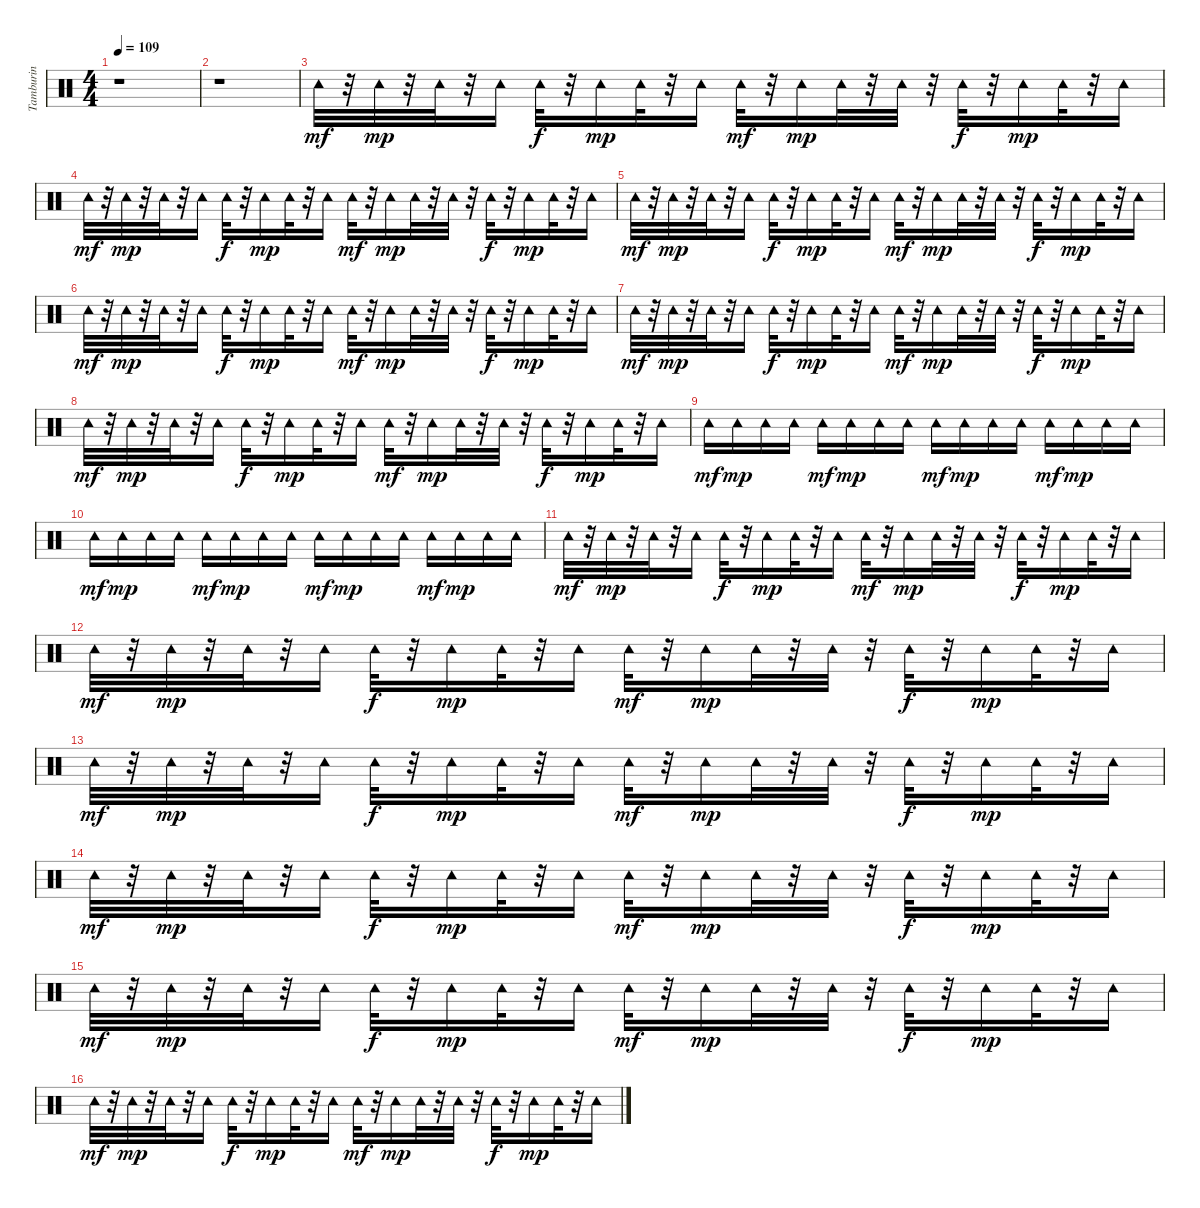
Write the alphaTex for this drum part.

\track ("Tamburin" "Tamburin") {instrument percussion}
\staff {score}
\articulation defaults
\ts (4 4)
\tempo 109
\clef neutral
\ks c
r.1{dy mf} |
r.1 |
"Tambourine (hit)".32 r.32 "Tambourine (hit)".32{dy mp} r.32 "Tambourine (hit)".32 r.32 "Tambourine (hit)".16 "Tambourine (hit)".32{dy f} r.32 "Tambourine (hit)".16{dy mp} "Tambourine (hit)".32 r.32 "Tambourine (hit)".16 "Tambourine (hit)".32{dy mf} r.32 "Tambourine (hit)".16{dy mp} "Tambourine (hit)".32 r.32 "Tambourine (hit)".32 r.32 "Tambourine (hit)".32{dy f} r.32 "Tambourine (hit)".16{dy mp} "Tambourine (hit)".32 r.32 "Tambourine (hit)".16 |
"Tambourine (hit)".32{dy mf} r.32 "Tambourine (hit)".32{dy mp} r.32 "Tambourine (hit)".32 r.32 "Tambourine (hit)".16 "Tambourine (hit)".32{dy f} r.32 "Tambourine (hit)".16{dy mp} "Tambourine (hit)".32 r.32 "Tambourine (hit)".16 "Tambourine (hit)".32{dy mf} r.32 "Tambourine (hit)".16{dy mp} "Tambourine (hit)".32 r.32 "Tambourine (hit)".32 r.32 "Tambourine (hit)".32{dy f} r.32 "Tambourine (hit)".16{dy mp} "Tambourine (hit)".32 r.32 "Tambourine (hit)".16 |
"Tambourine (hit)".32{dy mf} r.32 "Tambourine (hit)".32{dy mp} r.32 "Tambourine (hit)".32 r.32 "Tambourine (hit)".16 "Tambourine (hit)".32{dy f} r.32 "Tambourine (hit)".16{dy mp} "Tambourine (hit)".32 r.32 "Tambourine (hit)".16 "Tambourine (hit)".32{dy mf} r.32 "Tambourine (hit)".16{dy mp} "Tambourine (hit)".32 r.32 "Tambourine (hit)".32 r.32 "Tambourine (hit)".32{dy f} r.32 "Tambourine (hit)".16{dy mp} "Tambourine (hit)".32 r.32 "Tambourine (hit)".16 |
"Tambourine (hit)".32{dy mf} r.32 "Tambourine (hit)".32{dy mp} r.32 "Tambourine (hit)".32 r.32 "Tambourine (hit)".16 "Tambourine (hit)".32{dy f} r.32 "Tambourine (hit)".16{dy mp} "Tambourine (hit)".32 r.32 "Tambourine (hit)".16 "Tambourine (hit)".32{dy mf} r.32 "Tambourine (hit)".16{dy mp} "Tambourine (hit)".32 r.32 "Tambourine (hit)".32 r.32 "Tambourine (hit)".32{dy f} r.32 "Tambourine (hit)".16{dy mp} "Tambourine (hit)".32 r.32 "Tambourine (hit)".16 |
"Tambourine (hit)".32{dy mf} r.32 "Tambourine (hit)".32{dy mp} r.32 "Tambourine (hit)".32 r.32 "Tambourine (hit)".16 "Tambourine (hit)".32{dy f} r.32 "Tambourine (hit)".16{dy mp} "Tambourine (hit)".32 r.32 "Tambourine (hit)".16 "Tambourine (hit)".32{dy mf} r.32 "Tambourine (hit)".16{dy mp} "Tambourine (hit)".32 r.32 "Tambourine (hit)".32 r.32 "Tambourine (hit)".32{dy f} r.32 "Tambourine (hit)".16{dy mp} "Tambourine (hit)".32 r.32 "Tambourine (hit)".16 |
"Tambourine (hit)".32{dy mf} r.32 "Tambourine (hit)".32{dy mp} r.32 "Tambourine (hit)".32 r.32 "Tambourine (hit)".16 "Tambourine (hit)".32{dy f} r.32 "Tambourine (hit)".16{dy mp} "Tambourine (hit)".32 r.32 "Tambourine (hit)".16 "Tambourine (hit)".32{dy mf} r.32 "Tambourine (hit)".16{dy mp} "Tambourine (hit)".32 r.32 "Tambourine (hit)".32 r.32 "Tambourine (hit)".32{dy f} r.32 "Tambourine (hit)".16{dy mp} "Tambourine (hit)".32 r.32 "Tambourine (hit)".16 |
"Tambourine (hit)".16{dy mf} "Tambourine (hit)".16{dy mp} "Tambourine (hit)".16 "Tambourine (hit)".16 "Tambourine (hit)".16{dy mf} "Tambourine (hit)".16{dy mp} "Tambourine (hit)".16 "Tambourine (hit)".16 "Tambourine (hit)".16{dy mf} "Tambourine (hit)".16{dy mp} "Tambourine (hit)".16 "Tambourine (hit)".16 "Tambourine (hit)".16{dy mf} "Tambourine (hit)".16{dy mp} "Tambourine (hit)".16 "Tambourine (hit)".16 |
"Tambourine (hit)".16{dy mf} "Tambourine (hit)".16{dy mp} "Tambourine (hit)".16 "Tambourine (hit)".16 "Tambourine (hit)".16{dy mf} "Tambourine (hit)".16{dy mp} "Tambourine (hit)".16 "Tambourine (hit)".16 "Tambourine (hit)".16{dy mf} "Tambourine (hit)".16{dy mp} "Tambourine (hit)".16 "Tambourine (hit)".16 "Tambourine (hit)".16{dy mf} "Tambourine (hit)".16{dy mp} "Tambourine (hit)".16 "Tambourine (hit)".16 |
"Tambourine (hit)".32{dy mf} r.32 "Tambourine (hit)".32{dy mp} r.32 "Tambourine (hit)".32 r.32 "Tambourine (hit)".16 "Tambourine (hit)".32{dy f} r.32 "Tambourine (hit)".16{dy mp} "Tambourine (hit)".32 r.32 "Tambourine (hit)".16 "Tambourine (hit)".32{dy mf} r.32 "Tambourine (hit)".16{dy mp} "Tambourine (hit)".32 r.32 "Tambourine (hit)".32 r.32 "Tambourine (hit)".32{dy f} r.32 "Tambourine (hit)".16{dy mp} "Tambourine (hit)".32 r.32 "Tambourine (hit)".16 |
"Tambourine (hit)".32{dy mf} r.32 "Tambourine (hit)".32{dy mp} r.32 "Tambourine (hit)".32 r.32 "Tambourine (hit)".16 "Tambourine (hit)".32{dy f} r.32 "Tambourine (hit)".16{dy mp} "Tambourine (hit)".32 r.32 "Tambourine (hit)".16 "Tambourine (hit)".32{dy mf} r.32 "Tambourine (hit)".16{dy mp} "Tambourine (hit)".32 r.32 "Tambourine (hit)".32 r.32 "Tambourine (hit)".32{dy f} r.32 "Tambourine (hit)".16{dy mp} "Tambourine (hit)".32 r.32 "Tambourine (hit)".16 |
"Tambourine (hit)".32{dy mf} r.32 "Tambourine (hit)".32{dy mp} r.32 "Tambourine (hit)".32 r.32 "Tambourine (hit)".16 "Tambourine (hit)".32{dy f} r.32 "Tambourine (hit)".16{dy mp} "Tambourine (hit)".32 r.32 "Tambourine (hit)".16 "Tambourine (hit)".32{dy mf} r.32 "Tambourine (hit)".16{dy mp} "Tambourine (hit)".32 r.32 "Tambourine (hit)".32 r.32 "Tambourine (hit)".32{dy f} r.32 "Tambourine (hit)".16{dy mp} "Tambourine (hit)".32 r.32 "Tambourine (hit)".16 |
"Tambourine (hit)".32{dy mf} r.32 "Tambourine (hit)".32{dy mp} r.32 "Tambourine (hit)".32 r.32 "Tambourine (hit)".16 "Tambourine (hit)".32{dy f} r.32 "Tambourine (hit)".16{dy mp} "Tambourine (hit)".32 r.32 "Tambourine (hit)".16 "Tambourine (hit)".32{dy mf} r.32 "Tambourine (hit)".16{dy mp} "Tambourine (hit)".32 r.32 "Tambourine (hit)".32 r.32 "Tambourine (hit)".32{dy f} r.32 "Tambourine (hit)".16{dy mp} "Tambourine (hit)".32 r.32 "Tambourine (hit)".16 |
"Tambourine (hit)".32{dy mf} r.32 "Tambourine (hit)".32{dy mp} r.32 "Tambourine (hit)".32 r.32 "Tambourine (hit)".16 "Tambourine (hit)".32{dy f} r.32 "Tambourine (hit)".16{dy mp} "Tambourine (hit)".32 r.32 "Tambourine (hit)".16 "Tambourine (hit)".32{dy mf} r.32 "Tambourine (hit)".16{dy mp} "Tambourine (hit)".32 r.32 "Tambourine (hit)".32 r.32 "Tambourine (hit)".32{dy f} r.32 "Tambourine (hit)".16{dy mp} "Tambourine (hit)".32 r.32 "Tambourine (hit)".16 |
"Tambourine (hit)".32{dy mf} r.32 "Tambourine (hit)".32{dy mp} r.32 "Tambourine (hit)".32 r.32 "Tambourine (hit)".16 "Tambourine (hit)".32{dy f} r.32 "Tambourine (hit)".16{dy mp} "Tambourine (hit)".32 r.32 "Tambourine (hit)".16 "Tambourine (hit)".32{dy mf} r.32 "Tambourine (hit)".16{dy mp} "Tambourine (hit)".32 r.32 "Tambourine (hit)".32 r.32 "Tambourine (hit)".32{dy f} r.32 "Tambourine (hit)".16{dy mp} "Tambourine (hit)".32 r.32 "Tambourine (hit)".16
